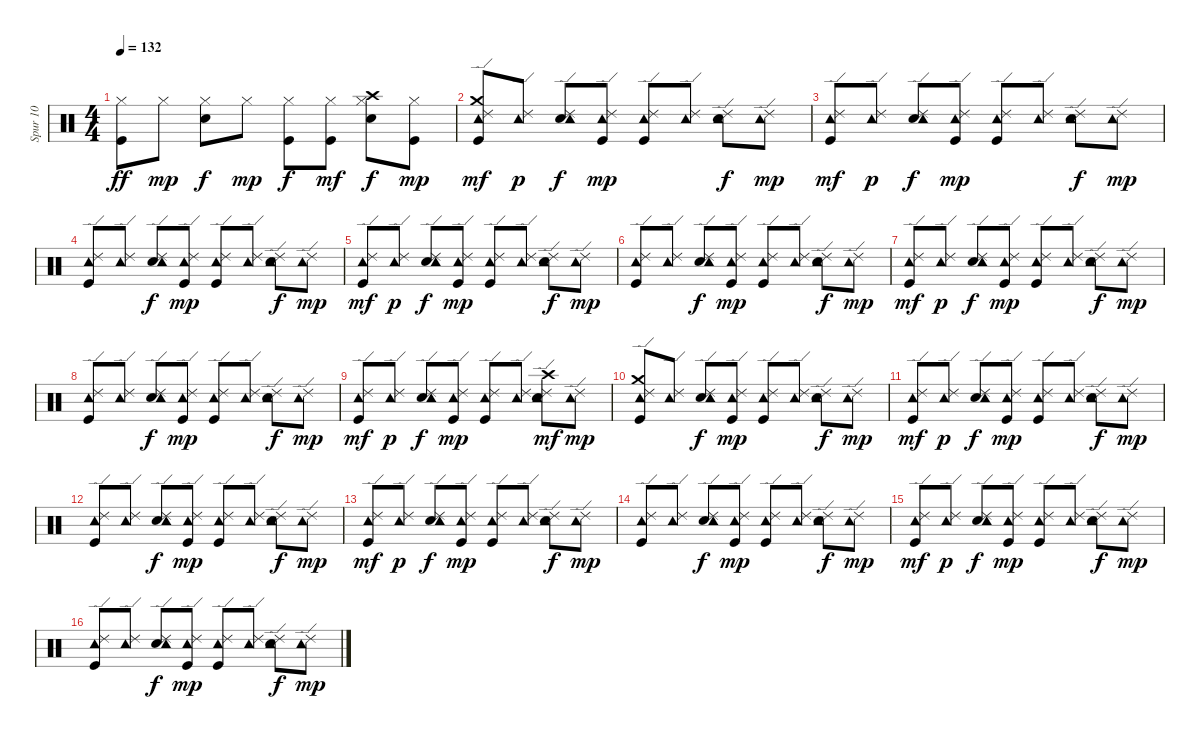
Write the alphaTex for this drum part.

\track ("Spur 10" "Spur 10") {instrument percussion}
\staff {score}
\articulation defaults
\ts (4 4)
\tempo 132
\clef neutral
\ks c
("Kick (hit)" "Hi-Hat (closed)").8{dy ff} "Hi-Hat (closed)".8{dy mp} ("Electric Snare (hit)" "Hi-Hat (closed)").8{dy f} "Hi-Hat (closed)".8{dy mp} ("Kick (hit)" "Hi-Hat (closed)").8{dy f} ("Hi-Hat (closed)" "Kick (hit)").8{dy mf} ("Electric Snare (hit)" "Hi-Hat (closed)" "Crash high (hit)").8{dy f} ("Hi-Hat (closed)" "Kick (hit)").8{dy mp} |
("Crash medium (hit)" "Kick (hit)" "Ride (edge) 2" "Tambourine (hit)").8{dy mf} ("Ride (edge) 2" "Tambourine (hit)").8{dy p} ("Electric Snare (hit)" "Ride (edge) 2" "Tambourine (hit)").8{dy f} ("Ride (edge) 2" "Kick (hit)" "Tambourine (hit)").8{dy mp} ("Ride (edge) 2" "Kick (hit)" "Tambourine (hit)").8 ("Ride (edge) 2" "Tambourine (hit)").8 ("Electric Snare (hit)" "Ride (edge) 2" "Tambourine (hit)").8{dy f} ("Ride (edge) 2" "Tambourine (hit)").8{dy mp} |
("Ride (edge) 2" "Kick (hit)" "Tambourine (hit)").8{dy mf} ("Ride (edge) 2" "Tambourine (hit)").8{dy p} ("Ride (edge) 2" "Electric Snare (hit)" "Tambourine (hit)").8{dy f} ("Ride (edge) 2" "Kick (hit)" "Tambourine (hit)").8{dy mp} ("Ride (edge) 2" "Kick (hit)" "Tambourine (hit)").8 ("Ride (edge) 2" "Tambourine (hit)").8 ("Ride (edge) 2" "Electric Snare (hit)" "Tambourine (hit)").8{dy f} ("Ride (edge) 2" "Tambourine (hit)").8{dy mp} |
("Kick (hit)" "Ride (edge) 2" "Tambourine (hit)").8 ("Ride (edge) 2" "Tambourine (hit)").8 ("Electric Snare (hit)" "Ride (edge) 2" "Tambourine (hit)").8{dy f} ("Kick (hit)" "Ride (edge) 2" "Tambourine (hit)").8{dy mp} ("Kick (hit)" "Ride (edge) 2" "Tambourine (hit)").8 ("Ride (edge) 2" "Tambourine (hit)").8 ("Electric Snare (hit)" "Ride (edge) 2" "Tambourine (hit)").8{dy f} ("Ride (edge) 2" "Tambourine (hit)").8{dy mp} |
("Kick (hit)" "Ride (edge) 2" "Tambourine (hit)").8{dy mf} ("Ride (edge) 2" "Tambourine (hit)").8{dy p} ("Electric Snare (hit)" "Ride (edge) 2" "Tambourine (hit)").8{dy f} ("Kick (hit)" "Ride (edge) 2" "Tambourine (hit)").8{dy mp} ("Kick (hit)" "Ride (edge) 2" "Tambourine (hit)").8 ("Ride (edge) 2" "Tambourine (hit)").8 ("Electric Snare (hit)" "Ride (edge) 2" "Tambourine (hit)").8{dy f} ("Ride (edge) 2" "Tambourine (hit)").8{dy mp} |
("Kick (hit)" "Ride (edge) 2" "Tambourine (hit)").8 ("Ride (edge) 2" "Tambourine (hit)").8 ("Electric Snare (hit)" "Ride (edge) 2" "Tambourine (hit)").8{dy f} ("Kick (hit)" "Ride (edge) 2" "Tambourine (hit)").8{dy mp} ("Kick (hit)" "Ride (edge) 2" "Tambourine (hit)").8 ("Ride (edge) 2" "Tambourine (hit)").8 ("Electric Snare (hit)" "Ride (edge) 2" "Tambourine (hit)").8{dy f} ("Ride (edge) 2" "Tambourine (hit)").8{dy mp} |
("Kick (hit)" "Ride (edge) 2" "Tambourine (hit)").8{dy mf} ("Ride (edge) 2" "Tambourine (hit)").8{dy p} ("Electric Snare (hit)" "Ride (edge) 2" "Tambourine (hit)").8{dy f} ("Kick (hit)" "Ride (edge) 2" "Tambourine (hit)").8{dy mp} ("Kick (hit)" "Ride (edge) 2" "Tambourine (hit)").8 ("Ride (edge) 2" "Tambourine (hit)").8 ("Electric Snare (hit)" "Ride (edge) 2" "Tambourine (hit)").8{dy f} ("Ride (edge) 2" "Tambourine (hit)").8{dy mp} |
("Kick (hit)" "Ride (edge) 2" "Tambourine (hit)").8 ("Ride (edge) 2" "Tambourine (hit)").8 ("Electric Snare (hit)" "Ride (edge) 2" "Tambourine (hit)").8{dy f} ("Kick (hit)" "Ride (edge) 2" "Tambourine (hit)").8{dy mp} ("Kick (hit)" "Ride (edge) 2" "Tambourine (hit)").8 ("Ride (edge) 2" "Tambourine (hit)").8 ("Electric Snare (hit)" "Ride (edge) 2" "Tambourine (hit)").8{dy f} ("Ride (edge) 2" "Tambourine (hit)").8{dy mp} |
("Kick (hit)" "Ride (edge) 2" "Tambourine (hit)").8{dy mf} ("Ride (edge) 2" "Tambourine (hit)").8{dy p} ("Electric Snare (hit)" "Ride (edge) 2" "Tambourine (hit)").8{dy f} ("Kick (hit)" "Ride (edge) 2" "Tambourine (hit)").8{dy mp} ("Kick (hit)" "Ride (edge) 2" "Tambourine (hit)").8 ("Ride (edge) 2" "Tambourine (hit)").8 ("Electric Snare (hit)" "Ride (edge) 2" "Crash high (hit)" "Tambourine (hit)").8{dy mf} ("Ride (edge) 2" "Tambourine (hit)").8{dy mp} |
("Crash medium (hit)" "Ride (edge) 2" "Kick (hit)" "Tambourine (hit)").8 ("Ride (edge) 2" "Tambourine (hit)").8 ("Electric Snare (hit)" "Ride (edge) 2" "Tambourine (hit)").8{dy f} ("Kick (hit)" "Ride (edge) 2" "Tambourine (hit)").8{dy mp} ("Kick (hit)" "Ride (edge) 2" "Tambourine (hit)").8 ("Ride (edge) 2" "Tambourine (hit)").8 ("Electric Snare (hit)" "Ride (edge) 2" "Tambourine (hit)").8{dy f} ("Ride (edge) 2" "Tambourine (hit)").8{dy mp} |
("Ride (edge) 2" "Kick (hit)" "Tambourine (hit)").8{dy mf} ("Ride (edge) 2" "Tambourine (hit)").8{dy p} ("Electric Snare (hit)" "Ride (edge) 2" "Tambourine (hit)").8{dy f} ("Ride (edge) 2" "Kick (hit)" "Tambourine (hit)").8{dy mp} ("Ride (edge) 2" "Kick (hit)" "Tambourine (hit)").8 ("Ride (edge) 2" "Tambourine (hit)").8 ("Electric Snare (hit)" "Ride (edge) 2" "Tambourine (hit)").8{dy f} ("Ride (edge) 2" "Tambourine (hit)").8{dy mp} |
("Kick (hit)" "Ride (edge) 2" "Tambourine (hit)").8 ("Ride (edge) 2" "Tambourine (hit)").8 ("Electric Snare (hit)" "Ride (edge) 2" "Tambourine (hit)").8{dy f} ("Kick (hit)" "Ride (edge) 2" "Tambourine (hit)").8{dy mp} ("Kick (hit)" "Ride (edge) 2" "Tambourine (hit)").8 ("Ride (edge) 2" "Tambourine (hit)").8 ("Electric Snare (hit)" "Ride (edge) 2" "Tambourine (hit)").8{dy f} ("Ride (edge) 2" "Tambourine (hit)").8{dy mp} |
("Kick (hit)" "Ride (edge) 2" "Tambourine (hit)").8{dy mf} ("Ride (edge) 2" "Tambourine (hit)").8{dy p} ("Electric Snare (hit)" "Ride (edge) 2" "Tambourine (hit)").8{dy f} ("Kick (hit)" "Ride (edge) 2" "Tambourine (hit)").8{dy mp} ("Kick (hit)" "Ride (edge) 2" "Tambourine (hit)").8 ("Ride (edge) 2" "Tambourine (hit)").8 ("Electric Snare (hit)" "Ride (edge) 2" "Tambourine (hit)").8{dy f} ("Ride (edge) 2" "Tambourine (hit)").8{dy mp} |
("Kick (hit)" "Ride (edge) 2" "Tambourine (hit)").8 ("Ride (edge) 2" "Tambourine (hit)").8 ("Electric Snare (hit)" "Ride (edge) 2" "Tambourine (hit)").8{dy f} ("Kick (hit)" "Ride (edge) 2" "Tambourine (hit)").8{dy mp} ("Kick (hit)" "Ride (edge) 2" "Tambourine (hit)").8 ("Ride (edge) 2" "Tambourine (hit)").8 ("Electric Snare (hit)" "Ride (edge) 2" "Tambourine (hit)").8{dy f} ("Ride (edge) 2" "Tambourine (hit)").8{dy mp} |
("Kick (hit)" "Ride (edge) 2" "Tambourine (hit)").8{dy mf} ("Ride (edge) 2" "Tambourine (hit)").8{dy p} ("Electric Snare (hit)" "Ride (edge) 2" "Tambourine (hit)").8{dy f} ("Kick (hit)" "Ride (edge) 2" "Tambourine (hit)").8{dy mp} ("Kick (hit)" "Ride (edge) 2" "Tambourine (hit)").8 ("Ride (edge) 2" "Tambourine (hit)").8 ("Electric Snare (hit)" "Ride (edge) 2" "Tambourine (hit)").8{dy f} ("Ride (edge) 2" "Tambourine (hit)").8{dy mp} |
("Kick (hit)" "Ride (edge) 2" "Tambourine (hit)").8 ("Ride (edge) 2" "Tambourine (hit)").8 ("Electric Snare (hit)" "Ride (edge) 2" "Tambourine (hit)").8{dy f} ("Kick (hit)" "Ride (edge) 2" "Tambourine (hit)").8{dy mp} ("Kick (hit)" "Ride (edge) 2" "Tambourine (hit)").8 ("Ride (edge) 2" "Tambourine (hit)").8 ("Electric Snare (hit)" "Ride (edge) 2" "Tambourine (hit)").8{dy f} ("Ride (edge) 2" "Tambourine (hit)").8{dy mp}
